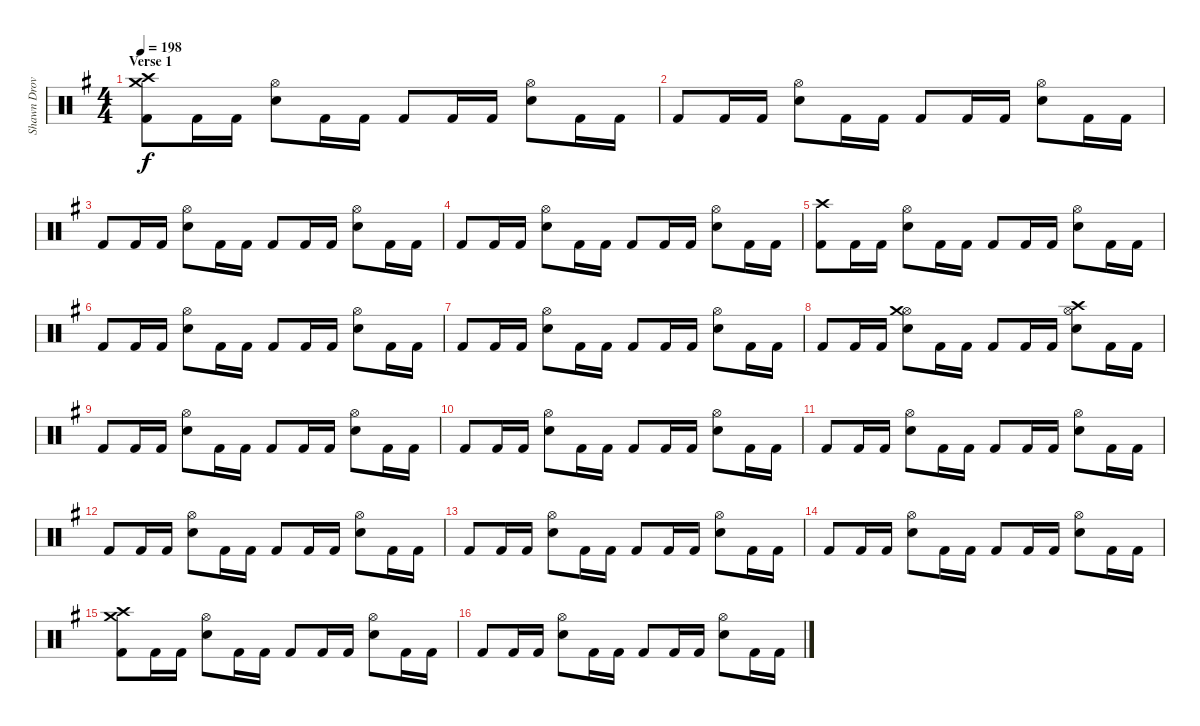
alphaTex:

\track ("Shawn Drover" "Shawn Drov") {instrument percussion}
\staff {score}
\articulation defaults
\ts (4 4)
\section ("" "Verse 1")
\tempo 198
\clef neutral
\ks g
("Crash high (hit)" "Crash medium (hit)" "Kick (hit) 2").8{dy f} "Kick (hit) 2".16 "Kick (hit) 2".16 ("Hi-Hat (open)" "Snare (hit) 2").8 "Kick (hit) 2".16 "Kick (hit) 2".16 "Kick (hit) 2".8 "Kick (hit) 2".16 "Kick (hit) 2".16 ("Hi-Hat (open)" "Snare (hit) 2").8 "Kick (hit) 2".16 "Kick (hit) 2".16 |
"Kick (hit) 2".8 "Kick (hit) 2".16 "Kick (hit) 2".16 ("Hi-Hat (open)" "Snare (hit) 2").8 "Kick (hit) 2".16 "Kick (hit) 2".16 "Kick (hit) 2".8 "Kick (hit) 2".16 "Kick (hit) 2".16 ("Hi-Hat (open)" "Snare (hit) 2").8 "Kick (hit) 2".16 "Kick (hit) 2".16 |
"Kick (hit) 2".8 "Kick (hit) 2".16 "Kick (hit) 2".16 ("Hi-Hat (open)" "Snare (hit) 2").8 "Kick (hit) 2".16 "Kick (hit) 2".16 "Kick (hit) 2".8 "Kick (hit) 2".16 "Kick (hit) 2".16 ("Hi-Hat (open)" "Snare (hit) 2").8 "Kick (hit) 2".16 "Kick (hit) 2".16 |
"Kick (hit) 2".8 "Kick (hit) 2".16 "Kick (hit) 2".16 ("Hi-Hat (open)" "Snare (hit) 2").8 "Kick (hit) 2".16 "Kick (hit) 2".16 "Kick (hit) 2".8 "Kick (hit) 2".16 "Kick (hit) 2".16 ("Hi-Hat (open)" "Snare (hit) 2").8 "Kick (hit) 2".16 "Kick (hit) 2".16 |
("Crash high (hit)" "Kick (hit) 2").8 "Kick (hit) 2".16 "Kick (hit) 2".16 ("Hi-Hat (open)" "Snare (hit) 2").8 "Kick (hit) 2".16 "Kick (hit) 2".16 "Kick (hit) 2".8 "Kick (hit) 2".16 "Kick (hit) 2".16 ("Hi-Hat (open)" "Snare (hit) 2").8 "Kick (hit) 2".16 "Kick (hit) 2".16 |
"Kick (hit) 2".8 "Kick (hit) 2".16 "Kick (hit) 2".16 ("Hi-Hat (open)" "Snare (hit) 2").8 "Kick (hit) 2".16 "Kick (hit) 2".16 "Kick (hit) 2".8 "Kick (hit) 2".16 "Kick (hit) 2".16 ("Hi-Hat (open)" "Snare (hit) 2").8 "Kick (hit) 2".16 "Kick (hit) 2".16 |
"Kick (hit) 2".8 "Kick (hit) 2".16 "Kick (hit) 2".16 ("Hi-Hat (open)" "Snare (hit) 2").8 "Kick (hit) 2".16 "Kick (hit) 2".16 "Kick (hit) 2".8 "Kick (hit) 2".16 "Kick (hit) 2".16 ("Hi-Hat (open)" "Snare (hit) 2").8 "Kick (hit) 2".16 "Kick (hit) 2".16 |
"Kick (hit) 2".8 "Kick (hit) 2".16 "Kick (hit) 2".16 ("Hi-Hat (open)" "Crash medium (hit)" "Snare (hit) 2").8 "Kick (hit) 2".16 "Kick (hit) 2".16 "Kick (hit) 2".8 "Kick (hit) 2".16 "Kick (hit) 2".16 ("Hi-Hat (open)" "Crash high (hit)" "Snare (hit) 2").8 "Kick (hit) 2".16 "Kick (hit) 2".16 |
"Kick (hit) 2".8 "Kick (hit) 2".16 "Kick (hit) 2".16 ("Hi-Hat (open)" "Snare (hit) 2").8 "Kick (hit) 2".16 "Kick (hit) 2".16 "Kick (hit) 2".8 "Kick (hit) 2".16 "Kick (hit) 2".16 ("Hi-Hat (open)" "Snare (hit) 2").8 "Kick (hit) 2".16 "Kick (hit) 2".16 |
"Kick (hit) 2".8 "Kick (hit) 2".16 "Kick (hit) 2".16 ("Hi-Hat (open)" "Snare (hit) 2").8 "Kick (hit) 2".16 "Kick (hit) 2".16 "Kick (hit) 2".8 "Kick (hit) 2".16 "Kick (hit) 2".16 ("Hi-Hat (open)" "Snare (hit) 2").8 "Kick (hit) 2".16 "Kick (hit) 2".16 |
"Kick (hit) 2".8 "Kick (hit) 2".16 "Kick (hit) 2".16 ("Hi-Hat (open)" "Snare (hit) 2").8 "Kick (hit) 2".16 "Kick (hit) 2".16 "Kick (hit) 2".8 "Kick (hit) 2".16 "Kick (hit) 2".16 ("Hi-Hat (open)" "Snare (hit) 2").8 "Kick (hit) 2".16 "Kick (hit) 2".16 |
"Kick (hit) 2".8 "Kick (hit) 2".16 "Kick (hit) 2".16 ("Hi-Hat (open)" "Snare (hit) 2").8 "Kick (hit) 2".16 "Kick (hit) 2".16 "Kick (hit) 2".8 "Kick (hit) 2".16 "Kick (hit) 2".16 ("Hi-Hat (open)" "Snare (hit) 2").8 "Kick (hit) 2".16 "Kick (hit) 2".16 |
"Kick (hit) 2".8 "Kick (hit) 2".16 "Kick (hit) 2".16 ("Hi-Hat (open)" "Snare (hit) 2").8 "Kick (hit) 2".16 "Kick (hit) 2".16 "Kick (hit) 2".8 "Kick (hit) 2".16 "Kick (hit) 2".16 ("Hi-Hat (open)" "Snare (hit) 2").8 "Kick (hit) 2".16 "Kick (hit) 2".16 |
"Kick (hit) 2".8 "Kick (hit) 2".16 "Kick (hit) 2".16 ("Hi-Hat (open)" "Snare (hit) 2").8 "Kick (hit) 2".16 "Kick (hit) 2".16 "Kick (hit) 2".8 "Kick (hit) 2".16 "Kick (hit) 2".16 ("Hi-Hat (open)" "Snare (hit) 2").8 "Kick (hit) 2".16 "Kick (hit) 2".16 |
("Crash medium (hit)" "Crash high (hit)" "Kick (hit) 2").8 "Kick (hit) 2".16 "Kick (hit) 2".16 ("Hi-Hat (open)" "Snare (hit) 2").8 "Kick (hit) 2".16 "Kick (hit) 2".16 "Kick (hit) 2".8 "Kick (hit) 2".16 "Kick (hit) 2".16 ("Hi-Hat (open)" "Snare (hit) 2").8 "Kick (hit) 2".16 "Kick (hit) 2".16 |
"Kick (hit) 2".8 "Kick (hit) 2".16 "Kick (hit) 2".16 ("Hi-Hat (open)" "Snare (hit) 2").8 "Kick (hit) 2".16 "Kick (hit) 2".16 "Kick (hit) 2".8 "Kick (hit) 2".16 "Kick (hit) 2".16 ("Hi-Hat (open)" "Snare (hit) 2").8 "Kick (hit) 2".16 "Kick (hit) 2".16
